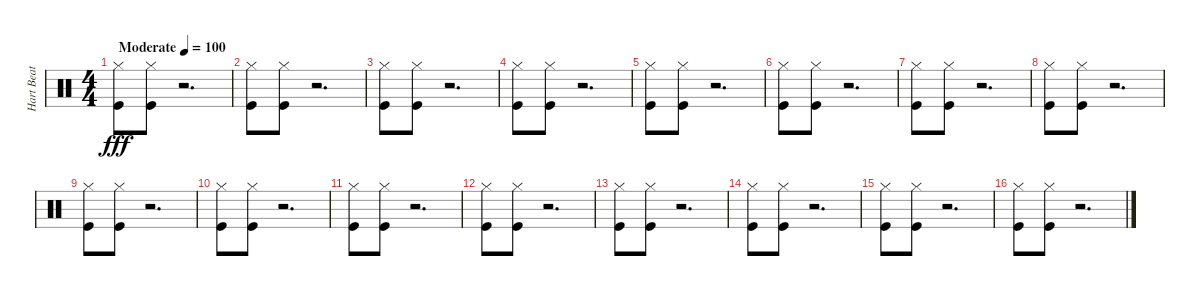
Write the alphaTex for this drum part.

\track ("Hart Beat kick" "Hart Beat ") {instrument percussion}
\staff {score}
\articulation defaults
\ts (4 4)
\tempo (100 "Moderate")
\clef neutral
\ks c
("Hi-Hat (closed)" "Kick (hit)").8{dy fff} ("Hi-Hat (closed)" "Kick (hit)").8 r.2{d} |
("Hi-Hat (closed)" "Kick (hit)").8 ("Hi-Hat (closed)" "Kick (hit)").8 r.2{d} |
("Hi-Hat (closed)" "Kick (hit)").8 ("Hi-Hat (closed)" "Kick (hit)").8 r.2{d} |
("Hi-Hat (closed)" "Kick (hit)").8 ("Hi-Hat (closed)" "Kick (hit)").8 r.2{d} |
("Hi-Hat (closed)" "Kick (hit)").8 ("Hi-Hat (closed)" "Kick (hit)").8 r.2{d} |
("Hi-Hat (closed)" "Kick (hit)").8 ("Hi-Hat (closed)" "Kick (hit)").8 r.2{d} |
("Hi-Hat (closed)" "Kick (hit)").8 ("Hi-Hat (closed)" "Kick (hit)").8 r.2{d} |
("Hi-Hat (closed)" "Kick (hit)").8 ("Hi-Hat (closed)" "Kick (hit)").8 r.2{d} |
("Hi-Hat (closed)" "Kick (hit)").8 ("Hi-Hat (closed)" "Kick (hit)").8 r.2{d} |
("Hi-Hat (closed)" "Kick (hit)").8 ("Hi-Hat (closed)" "Kick (hit)").8 r.2{d} |
("Hi-Hat (closed)" "Kick (hit)").8 ("Hi-Hat (closed)" "Kick (hit)").8 r.2{d} |
("Hi-Hat (closed)" "Kick (hit)").8 ("Hi-Hat (closed)" "Kick (hit)").8 r.2{d} |
("Hi-Hat (closed)" "Kick (hit)").8 ("Hi-Hat (closed)" "Kick (hit)").8 r.2{d} |
("Hi-Hat (closed)" "Kick (hit)").8 ("Hi-Hat (closed)" "Kick (hit)").8 r.2{d} |
("Hi-Hat (closed)" "Kick (hit)").8 ("Hi-Hat (closed)" "Kick (hit)").8 r.2{d} |
("Hi-Hat (closed)" "Kick (hit)").8 ("Hi-Hat (closed)" "Kick (hit)").8 r.2{d}
